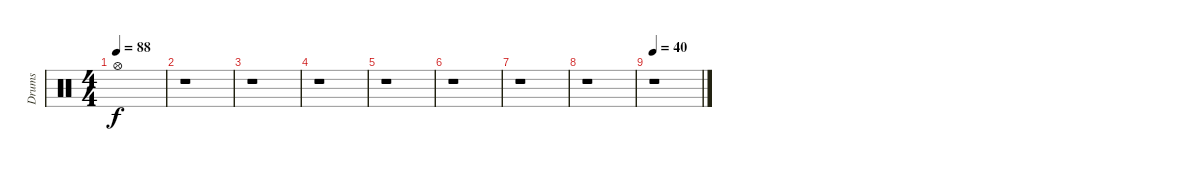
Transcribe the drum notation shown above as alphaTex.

\track ("Drums" "Drums") {instrument percussion}
\staff {score}
\articulation defaults
\ts (4 4)
\tempo 88
\clef neutral
\ks c "Hi-Hat (open)".1{dy f}
|
r.1 |
r.1 |
r.1 |
r.1 |
r.1 |
r.1 |
r.1 |
\tempo 40
r.1
